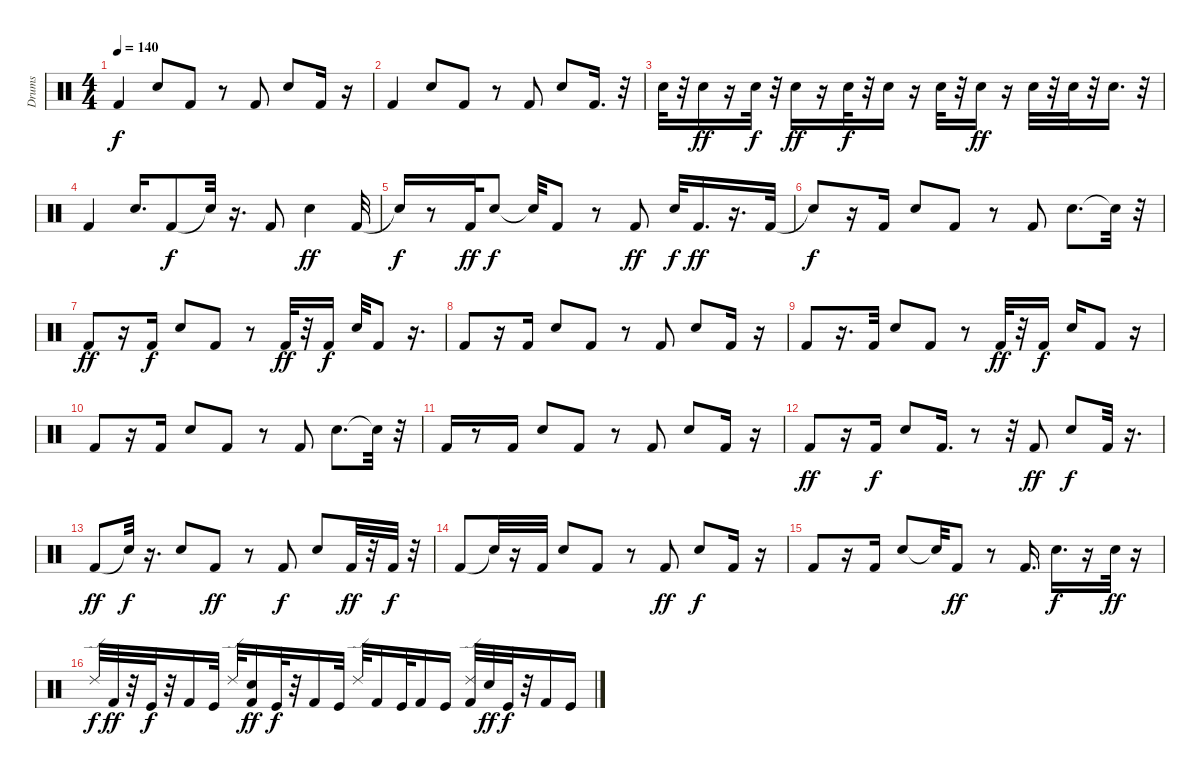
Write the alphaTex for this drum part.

\track ("Drums" "Drums") {instrument percussion}
\staff {score}
\articulation defaults
\ts (4 4)
\tempo 140
\clef neutral
\ks c "Kick (hit) 2".4{dy f} "Snare (hit) 2".8 "Kick (hit) 2".8
r.8 "Kick (hit) 2".8 "Snare (hit) 2".8 "Kick (hit) 2".16 r.16 |
"Kick (hit) 2".4 "Snare (hit) 2".8 "Kick (hit) 2".8 r.8 "Kick (hit) 2".8 "Snare (hit) 2".8 "Kick (hit) 2".16{d} r.32 |
"Snare (hit) 2".32 r.32 "Snare (hit) 2".16{dy ff} r.16 "Snare (hit) 2".32{dy f} r.32 "Snare (hit) 2".16{dy ff} r.16 "Snare (hit) 2".32{dy f} r.32 "Snare (hit) 2".16 r.16 "Snare (hit) 2".32 r.32 "Snare (hit) 2".16{dy ff} r.16 "Snare (hit) 2".32 r.32 "Snare (hit) 2".32 r.32 "Snare (hit) 2".16{d} r.32 |
"Kick (hit) 2".4 "Snare (hit) 2".16{d} "Kick (hit) 2".8{dy f} "Snare (hit)"{t}.32 r.16{d} "Kick (hit) 2".8 "Snare (hit) 2".4{dy ff} "Kick (hit) 2".32 |
"Snare (hit)"{t}.16{dy f} r.8 "Kick (hit) 2".32{dy ff} "Snare (hit) 2".8{dy f} "Snare (hit)"{t}.32 "Kick (hit) 2".8 r.8 "Kick (hit) 2".8{dy ff} "Snare (hit) 2".32{dy f} "Kick (hit) 2".16{d dy ff} r.16{d} "Kick (hit) 2".32 |
"Snare (hit)"{t}.8{dy f} r.16 "Kick (hit) 2".16 "Snare (hit) 2".8 "Kick (hit) 2".8 r.8 "Kick (hit) 2".8 "Snare (hit) 2".8{d} "Snare (hit)"{t}.32 r.32 |
"Kick (hit) 2".8{dy ff} r.16 "Kick (hit) 2".16{dy f} "Snare (hit) 2".8 "Kick (hit) 2".8 r.8 "Kick (hit) 2".32{dy ff} r.32 "Kick (hit) 2".16{dy f} "Snare (hit) 2".32 "Kick (hit) 2".8 r.16{d} |
"Kick (hit) 2".8 r.16 "Kick (hit) 2".16 "Snare (hit) 2".8 "Kick (hit) 2".8 r.8 "Kick (hit) 2".8 "Snare (hit) 2".8 "Kick (hit) 2".16 r.16 |
"Kick (hit) 2".8 r.16{d} "Kick (hit) 2".32 "Snare (hit) 2".8 "Kick (hit) 2".8 r.8 "Kick (hit) 2".32{dy ff} r.32 "Kick (hit) 2".16{dy f} "Snare (hit) 2".16 "Kick (hit) 2".8 r.16 |
"Kick (hit) 2".8 r.16 "Kick (hit) 2".16 "Snare (hit) 2".8 "Kick (hit) 2".8 r.8 "Kick (hit) 2".8 "Snare (hit) 2".8{d} "Snare (hit)"{t}.32 r.32 |
"Kick (hit) 2".16 r.8 "Kick (hit) 2".16 "Snare (hit) 2".8 "Kick (hit) 2".8 r.8 "Kick (hit) 2".8 "Snare (hit) 2".8 "Kick (hit) 2".16 r.16 |
"Kick (hit) 2".8{dy ff} r.16 "Kick (hit) 2".16{dy f} "Snare (hit) 2".8 "Kick (hit) 2".16{d} r.8 r.32 "Kick (hit) 2".8{dy ff} "Snare (hit) 2".8{dy f} "Kick (hit) 2".32 r.16{d} |
"Kick (hit) 2".8{dy ff} "Snare (hit)"{t}.32{dy f} r.16{d} "Snare (hit) 2".8 "Kick (hit) 2".8{dy ff} r.8 "Kick (hit) 2".8{dy f} "Snare (hit) 2".8 "Kick (hit) 2".32{dy ff} r.32 "Kick (hit) 2".32{dy f} r.32 |
"Kick (hit) 2".8 "Snare (hit)"{t}.32 r.16 "Kick (hit) 2".32 "Snare (hit) 2".8 "Kick (hit) 2".8 r.8 "Kick (hit) 2".8{dy ff} "Snare (hit) 2".8{dy f} "Kick (hit) 2".16 r.16 |
"Kick (hit) 2".8 r.16 "Kick (hit) 2".16 "Snare (hit) 2".8 "Snare (hit)"{t}.32 "Kick (hit) 2".8{dy ff} r.8 "Kick (hit) 2".16{d} "Snare (hit) 2".16{d dy f} r.16 "Snare (hit) 2".32{dy ff} r.16 |
"Ride (edge) 2".32{dy f} "Kick (hit) 2".32{dy ff} r.32 "Kick (hit)".32{dy f} r.32 "Kick (hit) 2".16 "Kick (hit)".32 "Ride (edge) 2".32 ("Kick (hit) 2" "Snare (hit) 2").16{dy ff} "Kick (hit)".32{dy f} r.32 "Kick (hit) 2".16 "Kick (hit)".32 "Ride (edge) 2".32 "Kick (hit) 2".16 "Kick (hit)".32 "Kick (hit) 2".16 "Kick (hit)".16 ("Ride (edge) 2" "Kick (hit) 2").32 "Snare (hit) 2".32{dy ff} "Kick (hit)".32{dy f} r.32 "Kick (hit) 2".16 "Kick (hit)".16
